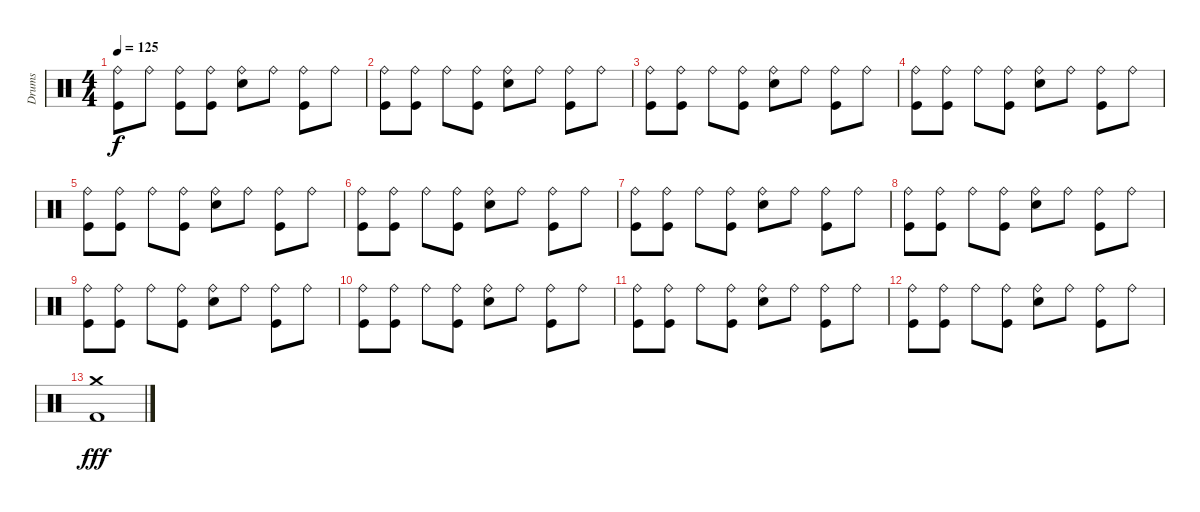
\track ("Drums" "Drums") {instrument percussion}
\staff {score}
\articulation defaults
\ts (4 4)
\tempo 125
\clef neutral
\ks c
("Kick (hit)" "Ride (bell)").8{dy f} "Ride (bell)".8 ("Kick (hit)" "Ride (bell)").8 ("Kick (hit)" "Ride (bell)").8 ("Electric Snare (hit)" "Ride (bell)").8 "Ride (bell)".8 ("Kick (hit)" "Ride (bell)").8 "Ride (bell)".8 |
("Kick (hit)" "Ride (bell)").8 ("Kick (hit)" "Ride (bell)").8 "Ride (bell)".8 ("Kick (hit)" "Ride (bell)").8 ("Electric Snare (hit)" "Ride (bell)").8 "Ride (bell)".8 ("Kick (hit)" "Ride (bell)").8 "Ride (bell)".8 |
("Kick (hit)" "Ride (bell)").8 ("Kick (hit)" "Ride (bell)").8 "Ride (bell)".8 ("Kick (hit)" "Ride (bell)").8 ("Electric Snare (hit)" "Ride (bell)").8 "Ride (bell)".8 ("Kick (hit)" "Ride (bell)").8 "Ride (bell)".8 |
("Kick (hit)" "Ride (bell)").8 ("Kick (hit)" "Ride (bell)").8 "Ride (bell)".8 ("Kick (hit)" "Ride (bell)").8 ("Electric Snare (hit)" "Ride (bell)").8 "Ride (bell)".8 ("Kick (hit)" "Ride (bell)").8 "Ride (bell)".8 |
("Kick (hit)" "Ride (bell)").8 ("Kick (hit)" "Ride (bell)").8 "Ride (bell)".8 ("Kick (hit)" "Ride (bell)").8 ("Electric Snare (hit)" "Ride (bell)").8 "Ride (bell)".8 ("Kick (hit)" "Ride (bell)").8 "Ride (bell)".8 |
("Kick (hit)" "Ride (bell)").8 ("Kick (hit)" "Ride (bell)").8 "Ride (bell)".8 ("Kick (hit)" "Ride (bell)").8 ("Electric Snare (hit)" "Ride (bell)").8 "Ride (bell)".8 ("Kick (hit)" "Ride (bell)").8 "Ride (bell)".8 |
("Kick (hit)" "Ride (bell)").8 ("Kick (hit)" "Ride (bell)").8 "Ride (bell)".8 ("Kick (hit)" "Ride (bell)").8 ("Electric Snare (hit)" "Ride (bell)").8 "Ride (bell)".8 ("Kick (hit)" "Ride (bell)").8 "Ride (bell)".8 |
("Kick (hit)" "Ride (bell)").8 ("Kick (hit)" "Ride (bell)").8 "Ride (bell)".8 ("Kick (hit)" "Ride (bell)").8 ("Electric Snare (hit)" "Ride (bell)").8 "Ride (bell)".8 ("Kick (hit)" "Ride (bell)").8 "Ride (bell)".8 |
("Kick (hit)" "Ride (bell)").8 ("Kick (hit)" "Ride (bell)").8 "Ride (bell)".8 ("Kick (hit)" "Ride (bell)").8 ("Electric Snare (hit)" "Ride (bell)").8 "Ride (bell)".8 ("Kick (hit)" "Ride (bell)").8 "Ride (bell)".8 |
("Kick (hit)" "Ride (bell)").8 ("Kick (hit)" "Ride (bell)").8 "Ride (bell)".8 ("Kick (hit)" "Ride (bell)").8 ("Electric Snare (hit)" "Ride (bell)").8 "Ride (bell)".8 ("Kick (hit)" "Ride (bell)").8 "Ride (bell)".8 |
("Kick (hit)" "Ride (bell)").8 ("Kick (hit)" "Ride (bell)").8 "Ride (bell)".8 ("Kick (hit)" "Ride (bell)").8 ("Electric Snare (hit)" "Ride (bell)").8 "Ride (bell)".8 ("Kick (hit)" "Ride (bell)").8 "Ride (bell)".8 |
("Kick (hit)" "Ride (bell)").8 ("Kick (hit)" "Ride (bell)").8 "Ride (bell)".8 ("Kick (hit)" "Ride (bell)").8 ("Electric Snare (hit)" "Ride (bell)").8 "Ride (bell)".8 ("Kick (hit)" "Ride (bell)").8 "Ride (bell)".8 |
("Crash medium (hit)" "Kick (hit) 2").1{dy fff}
